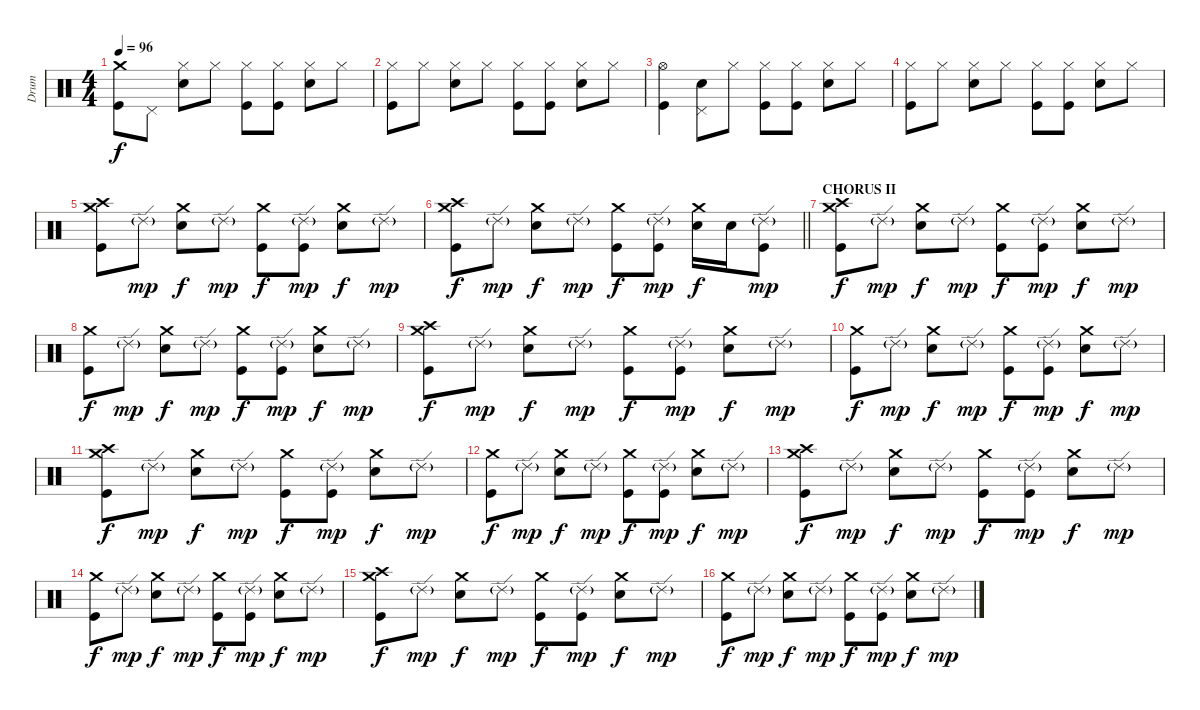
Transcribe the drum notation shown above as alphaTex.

\track ("Drum" "Drum") {instrument percussion}
\staff {score}
\articulation defaults
\ts (4 4)
\tempo 96
\clef neutral
\ks c
("Crash medium (hit)" "Kick (hit)").8{dy f} "Pedal Hi-Hat (hit)".8 ("Hi-Hat (closed)" "Electric Snare (hit)").8 "Hi-Hat (closed)".8 ("Hi-Hat (closed)" "Kick (hit)").8 ("Hi-Hat (closed)" "Kick (hit)").8 ("Hi-Hat (closed)" "Electric Snare (hit)").8 "Hi-Hat (closed)".8 |
("Hi-Hat (closed)" "Kick (hit)").8 "Hi-Hat (closed)".8 ("Hi-Hat (closed)" "Electric Snare (hit)").8 "Hi-Hat (closed)".8 ("Hi-Hat (closed)" "Kick (hit)").8 ("Hi-Hat (closed)" "Kick (hit)").8 ("Hi-Hat (closed)" "Electric Snare (hit)").8 "Hi-Hat (closed)".8 |
("Hi-Hat (open)" "Kick (hit)").4 ("Pedal Hi-Hat (hit)" "Electric Snare (hit)").8 "Hi-Hat (closed)".8 ("Hi-Hat (closed)" "Kick (hit)").8 ("Hi-Hat (closed)" "Kick (hit)").8 ("Hi-Hat (closed)" "Electric Snare (hit)").8 "Hi-Hat (closed)".8 |
("Hi-Hat (closed)" "Kick (hit)").8 "Hi-Hat (closed)".8 ("Hi-Hat (closed)" "Electric Snare (hit)").8 "Hi-Hat (closed)".8 ("Hi-Hat (closed)" "Kick (hit)").8 ("Hi-Hat (closed)" "Kick (hit)").8 ("Hi-Hat (closed)" "Electric Snare (hit)").8 "Hi-Hat (closed)".8 |
("Crash high (hit)" "Crash medium (hit)" "Kick (hit)").8 "Ride (edge) 2"{g}.8{dy mp} ("Crash medium (hit)" "Electric Snare (hit)").8{dy f} "Ride (edge) 2"{g}.8{dy mp} ("Crash medium (hit)" "Kick (hit)").8{dy f} ("Ride (edge) 2"{g} "Kick (hit)").8{dy mp} ("Crash medium (hit)" "Electric Snare (hit)").8{dy f} "Ride (edge) 2"{g}.8{dy mp} |
\barLineRight lightlight
("Crash high (hit)" "Crash medium (hit)" "Kick (hit)").8{dy f} "Ride (edge) 2"{g}.8{dy mp} ("Crash medium (hit)" "Electric Snare (hit)").8{dy f} "Ride (edge) 2"{g}.8{dy mp} ("Crash medium (hit)" "Kick (hit)").8{dy f} ("Ride (edge) 2"{g} "Kick (hit)").8{dy mp} ("Crash medium (hit)" "Electric Snare (hit)").16{dy f} "Electric Snare (hit)".16 ("Ride (edge) 2"{g} "Kick (hit)").8{dy mp} |
\section ("" "CHORUS II")
("Crash high (hit)" "Crash medium (hit)" "Kick (hit)").8{dy f} "Ride (edge) 2"{g}.8{dy mp} ("Crash medium (hit)" "Electric Snare (hit)").8{dy f} "Ride (edge) 2"{g}.8{dy mp} ("Crash medium (hit)" "Kick (hit)").8{dy f} ("Ride (edge) 2"{g} "Kick (hit)").8{dy mp} ("Crash medium (hit)" "Electric Snare (hit)").8{dy f} "Ride (edge) 2"{g}.8{dy mp} |
("Crash medium (hit)" "Kick (hit)").8{dy f} "Ride (edge) 2"{g}.8{dy mp} ("Crash medium (hit)" "Electric Snare (hit)").8{dy f} "Ride (edge) 2"{g}.8{dy mp} ("Crash medium (hit)" "Kick (hit)").8{dy f} ("Ride (edge) 2"{g} "Kick (hit)").8{dy mp} ("Crash medium (hit)" "Electric Snare (hit)").8{dy f} "Ride (edge) 2"{g}.8{dy mp} |
("Crash high (hit)" "Crash medium (hit)" "Kick (hit)").8{dy f} "Ride (edge) 2"{g}.8{dy mp} ("Crash medium (hit)" "Electric Snare (hit)").8{dy f} "Ride (edge) 2"{g}.8{dy mp} ("Crash medium (hit)" "Kick (hit)").8{dy f} ("Ride (edge) 2"{g} "Kick (hit)").8{dy mp} ("Crash medium (hit)" "Electric Snare (hit)").8{dy f} "Ride (edge) 2"{g}.8{dy mp} |
("Crash medium (hit)" "Kick (hit)").8{dy f} "Ride (edge) 2"{g}.8{dy mp} ("Crash medium (hit)" "Electric Snare (hit)").8{dy f} "Ride (edge) 2"{g}.8{dy mp} ("Crash medium (hit)" "Kick (hit)").8{dy f} ("Ride (edge) 2"{g} "Kick (hit)").8{dy mp} ("Crash medium (hit)" "Electric Snare (hit)").8{dy f} "Ride (edge) 2"{g}.8{dy mp} |
("Crash high (hit)" "Crash medium (hit)" "Kick (hit)").8{dy f} "Ride (edge) 2"{g}.8{dy mp} ("Crash medium (hit)" "Electric Snare (hit)").8{dy f} "Ride (edge) 2"{g}.8{dy mp} ("Crash medium (hit)" "Kick (hit)").8{dy f} ("Ride (edge) 2"{g} "Kick (hit)").8{dy mp} ("Crash medium (hit)" "Electric Snare (hit)").8{dy f} "Ride (edge) 2"{g}.8{dy mp} |
("Crash medium (hit)" "Kick (hit)").8{dy f} "Ride (edge) 2"{g}.8{dy mp} ("Crash medium (hit)" "Electric Snare (hit)").8{dy f} "Ride (edge) 2"{g}.8{dy mp} ("Crash medium (hit)" "Kick (hit)").8{dy f} ("Ride (edge) 2"{g} "Kick (hit)").8{dy mp} ("Crash medium (hit)" "Electric Snare (hit)").8{dy f} "Ride (edge) 2"{g}.8{dy mp} |
("Crash high (hit)" "Crash medium (hit)" "Kick (hit)").8{dy f} "Ride (edge) 2"{g}.8{dy mp} ("Crash medium (hit)" "Electric Snare (hit)").8{dy f} "Ride (edge) 2"{g}.8{dy mp} ("Crash medium (hit)" "Kick (hit)").8{dy f} ("Ride (edge) 2"{g} "Kick (hit)").8{dy mp} ("Crash medium (hit)" "Electric Snare (hit)").8{dy f} "Ride (edge) 2"{g}.8{dy mp} |
("Crash medium (hit)" "Kick (hit)").8{dy f} "Ride (edge) 2"{g}.8{dy mp} ("Crash medium (hit)" "Electric Snare (hit)").8{dy f} "Ride (edge) 2"{g}.8{dy mp} ("Crash medium (hit)" "Kick (hit)").8{dy f} ("Ride (edge) 2"{g} "Kick (hit)").8{dy mp} ("Crash medium (hit)" "Electric Snare (hit)").8{dy f} "Ride (edge) 2"{g}.8{dy mp} |
("Crash high (hit)" "Crash medium (hit)" "Kick (hit)").8{dy f} "Ride (edge) 2"{g}.8{dy mp} ("Crash medium (hit)" "Electric Snare (hit)").8{dy f} "Ride (edge) 2"{g}.8{dy mp} ("Crash medium (hit)" "Kick (hit)").8{dy f} ("Ride (edge) 2"{g} "Kick (hit)").8{dy mp} ("Crash medium (hit)" "Electric Snare (hit)").8{dy f} "Ride (edge) 2"{g}.8{dy mp} |
("Crash medium (hit)" "Kick (hit)").8{dy f} "Ride (edge) 2"{g}.8{dy mp} ("Crash medium (hit)" "Electric Snare (hit)").8{dy f} "Ride (edge) 2"{g}.8{dy mp} ("Crash medium (hit)" "Kick (hit)").8{dy f} ("Ride (edge) 2"{g} "Kick (hit)").8{dy mp} ("Crash medium (hit)" "Electric Snare (hit)").8{dy f} "Ride (edge) 2"{g}.8{dy mp}
